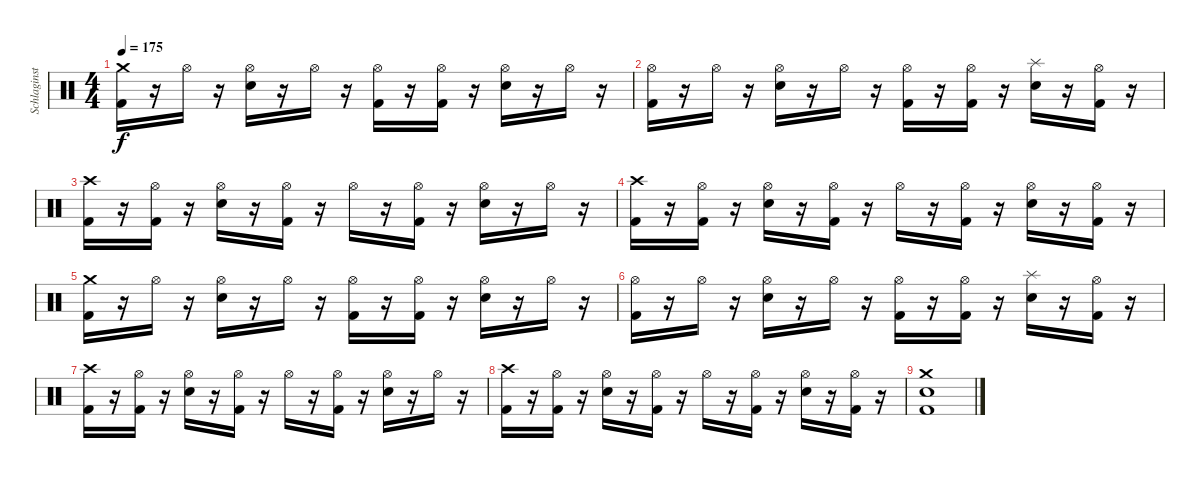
\track ("Schlaginstrumente - Auswahl" "Schlaginst") {instrument percussion}
\staff {score}
\articulation defaults
\ts (4 4)
\tempo 175
\clef neutral
\ks c
("Crash medium (hit)" "Kick (hit) 2").16{dy f} r.16 "Hi-Hat (open)".16 r.16 ("Hi-Hat (open)" "Electric Snare (hit)").16 r.16 "Hi-Hat (open)".16 r.16 ("Hi-Hat (open)" "Kick (hit) 2").16 r.16 ("Hi-Hat (open)" "Kick (hit) 2").16 r.16 ("Hi-Hat (open)" "Electric Snare (hit)").16 r.16 "Hi-Hat (open)".16 r.16 |
("Hi-Hat (open)" "Kick (hit) 2").16 r.16 "Hi-Hat (open)".16 r.16 ("Hi-Hat (open)" "Electric Snare (hit)").16 r.16 "Hi-Hat (open)".16 r.16 ("Hi-Hat (open)" "Kick (hit) 2").16 r.16 ("Hi-Hat (open)" "Kick (hit) 2").16 r.16 ("Splash (hit)" "Electric Snare (hit)").16 r.16 ("Hi-Hat (open)" "Kick (hit) 2").16 r.16 |
("Crash high (hit)" "Kick (hit) 2").16 r.16 ("Hi-Hat (open)" "Kick (hit) 2").16 r.16 ("Hi-Hat (open)" "Electric Snare (hit)").16 r.16 ("Hi-Hat (open)" "Kick (hit) 2").16 r.16 "Hi-Hat (open)".16 r.16 ("Hi-Hat (open)" "Kick (hit) 2").16 r.16 ("Hi-Hat (open)" "Electric Snare (hit)").16 r.16 "Hi-Hat (open)".16 r.16 |
("Crash high (hit)" "Kick (hit) 2").16 r.16 ("Hi-Hat (open)" "Kick (hit) 2").16 r.16 ("Hi-Hat (open)" "Electric Snare (hit)").16 r.16 ("Hi-Hat (open)" "Kick (hit) 2").16 r.16 "Hi-Hat (open)".16 r.16 ("Hi-Hat (open)" "Kick (hit) 2").16 r.16 ("Hi-Hat (open)" "Electric Snare (hit)").16 r.16 ("Hi-Hat (open)" "Kick (hit) 2").16 r.16 |
("Crash medium (hit)" "Kick (hit) 2").16 r.16 "Hi-Hat (open)".16 r.16 ("Hi-Hat (open)" "Electric Snare (hit)").16 r.16 "Hi-Hat (open)".16 r.16 ("Hi-Hat (open)" "Kick (hit) 2").16 r.16 ("Hi-Hat (open)" "Kick (hit) 2").16 r.16 ("Hi-Hat (open)" "Electric Snare (hit)").16 r.16 "Hi-Hat (open)".16 r.16 |
("Hi-Hat (open)" "Kick (hit) 2").16 r.16 "Hi-Hat (open)".16 r.16 ("Hi-Hat (open)" "Electric Snare (hit)").16 r.16 "Hi-Hat (open)".16 r.16 ("Hi-Hat (open)" "Kick (hit) 2").16 r.16 ("Hi-Hat (open)" "Kick (hit) 2").16 r.16 ("Splash (hit)" "Electric Snare (hit)").16 r.16 ("Hi-Hat (open)" "Kick (hit) 2").16 r.16 |
("Crash high (hit)" "Kick (hit) 2").16 r.16 ("Hi-Hat (open)" "Kick (hit) 2").16 r.16 ("Hi-Hat (open)" "Electric Snare (hit)").16 r.16 ("Hi-Hat (open)" "Kick (hit) 2").16 r.16 "Hi-Hat (open)".16 r.16 ("Hi-Hat (open)" "Kick (hit) 2").16 r.16 ("Hi-Hat (open)" "Electric Snare (hit)").16 r.16 "Hi-Hat (open)".16 r.16 |
("Crash high (hit)" "Kick (hit) 2").16 r.16 ("Hi-Hat (open)" "Kick (hit) 2").16 r.16 ("Hi-Hat (open)" "Electric Snare (hit)").16 r.16 ("Hi-Hat (open)" "Kick (hit) 2").16 r.16 "Hi-Hat (open)".16 r.16 ("Hi-Hat (open)" "Kick (hit) 2").16 r.16 ("Hi-Hat (open)" "Electric Snare (hit)").16 r.16 ("Hi-Hat (open)" "Kick (hit) 2").16 r.16 |
("Crash medium (hit)" "Electric Snare (hit)" "Kick (hit) 2").1
